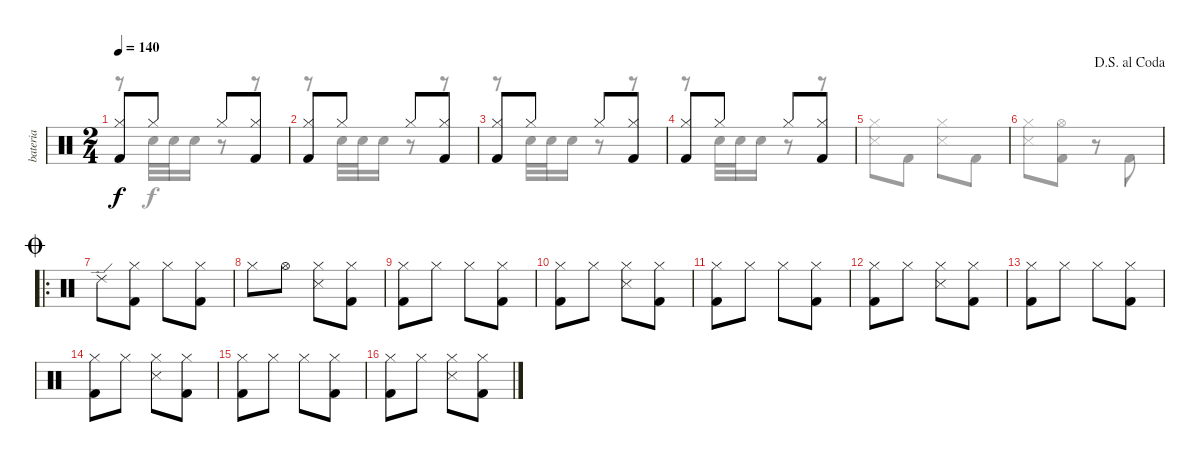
\track ("bateria" "bateria") {instrument percussion}
\staff {score}
\articulation defaults
\voice
\ts (2 4)
\tempo 140
\clef neutral
\ks c
("Hi-Hat (closed)" "Kick (hit) 2").8{dy f} "Hi-Hat (closed)".8 "Hi-Hat (closed)".8 ("Hi-Hat (closed)" "Kick (hit) 2").8 |
("Hi-Hat (closed)" "Kick (hit) 2").8 "Hi-Hat (closed)".8 "Hi-Hat (closed)".8 ("Hi-Hat (closed)" "Kick (hit) 2").8 |
("Hi-Hat (closed)" "Kick (hit) 2").8 "Hi-Hat (closed)".8 "Hi-Hat (closed)".8 ("Hi-Hat (closed)" "Kick (hit) 2").8 |
("Hi-Hat (closed)" "Kick (hit) 2").8 "Hi-Hat (closed)".8 "Hi-Hat (closed)".8 ("Hi-Hat (closed)" "Kick (hit) 2").8 |
|
\jump dalsegnoalcoda
|
\ro
\jump coda "Ride (edge) 2".8{volume 14}
("Hi-Hat (closed)" "Kick (hit) 2").8 "Hi-Hat (closed)".8 ("Hi-Hat (closed)" "Kick (hit) 2").8 |
"Hi-Hat (closed)".8 "Hi-Hat (open)".8 ("Hi-Hat (closed)" "Snare (side stick) 3").8 ("Hi-Hat (closed)" "Kick (hit) 2").8 |
("Hi-Hat (closed)" "Kick (hit) 2").8 "Hi-Hat (closed)".8 "Hi-Hat (closed)".8 ("Hi-Hat (closed)" "Kick (hit) 2").8 |
("Hi-Hat (closed)" "Kick (hit) 2").8 "Hi-Hat (closed)".8 ("Hi-Hat (closed)" "Snare (side stick) 3").8 ("Hi-Hat (closed)" "Kick (hit) 2").8 |
("Hi-Hat (closed)" "Kick (hit) 2").8 "Hi-Hat (closed)".8 "Hi-Hat (closed)".8 ("Hi-Hat (closed)" "Kick (hit) 2").8 |
("Hi-Hat (closed)" "Kick (hit) 2").8 "Hi-Hat (closed)".8 ("Hi-Hat (closed)" "Snare (side stick) 3").8 ("Hi-Hat (closed)" "Kick (hit) 2").8 |
("Hi-Hat (closed)" "Kick (hit) 2").8 "Hi-Hat (closed)".8 "Hi-Hat (closed)".8 ("Hi-Hat (closed)" "Kick (hit) 2").8 |
("Hi-Hat (closed)" "Kick (hit) 2").8 "Hi-Hat (closed)".8 ("Hi-Hat (closed)" "Snare (side stick) 3").8 ("Hi-Hat (closed)" "Kick (hit) 2").8 |
("Hi-Hat (closed)" "Kick (hit) 2").8 "Hi-Hat (closed)".8 "Hi-Hat (closed)".8 ("Hi-Hat (closed)" "Kick (hit) 2").8 |
("Hi-Hat (closed)" "Kick (hit) 2").8 "Hi-Hat (closed)".8 ("Hi-Hat (closed)" "Snare (side stick) 3").8 ("Hi-Hat (closed)" "Kick (hit) 2").8
\voice
\clef neutral
\ottava regular
\simile none
\ks c
r.8{dy f} "Snare (hit) 2".32 "Snare (hit) 2".32 "Snare (hit) 2".16 r.8 r.8 |
r.8 "Snare (hit) 2".32 "Snare (hit) 2".32 "Snare (hit) 2".16 r.8 r.8 |
r.8 "Snare (hit) 2".32 "Snare (hit) 2".32 "Snare (hit) 2".16 r.8 r.8 |
r.8 "Snare (hit) 2".32 "Snare (hit) 2".32 "Snare (hit) 2".16 r.8 r.8 |
("Hi-Hat (closed)" "Snare (side stick) 3").8 "Kick (hit) 2".8 ("Hi-Hat (closed)" "Snare (side stick) 3").8 "Kick (hit) 2".8 |
("Hi-Hat (closed)" "Snare (side stick) 3").8 ("Hi-Hat (open)" "Kick (hit) 2").8 r.8 "Kick (hit) 2".8 |
|
|
|
|
|
|
|
|
|
